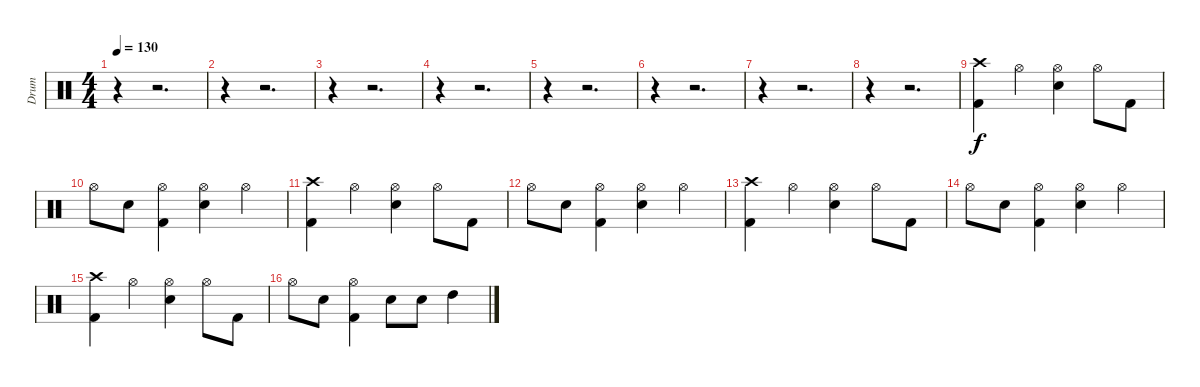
\track ("Drum" "Drum") {instrument percussion}
\staff {score}
\articulation defaults
\ts (4 4)
\tempo 130
\clef neutral
\ks c
r.4{dy f} r.2{d} |
r.4 r.2{d} |
r.4 r.2{d} |
r.4 r.2{d} |
r.4 r.2{d} |
r.4 r.2{d} |
r.4 r.2{d} |
r.4 r.2{d} |
("Crash high (hit)" "Kick (hit) 2").4 "Hi-Hat (open)".4 ("Snare (hit) 2" "Hi-Hat (open)").4 "Hi-Hat (open)".8 "Kick (hit) 2".8 |
"Hi-Hat (open)".8 "Snare (hit) 2".8 ("Kick (hit) 2" "Hi-Hat (open)").4 ("Snare (hit) 2" "Hi-Hat (open)").4 "Hi-Hat (open)".4 |
("Crash high (hit)" "Kick (hit) 2").4 "Hi-Hat (open)".4 ("Snare (hit) 2" "Hi-Hat (open)").4 "Hi-Hat (open)".8 "Kick (hit) 2".8 |
"Hi-Hat (open)".8 "Snare (hit) 2".8 ("Kick (hit) 2" "Hi-Hat (open)").4 ("Snare (hit) 2" "Hi-Hat (open)").4 "Hi-Hat (open)".4 |
("Crash high (hit)" "Kick (hit) 2").4 "Hi-Hat (open)".4 ("Snare (hit) 2" "Hi-Hat (open)").4 "Hi-Hat (open)".8 "Kick (hit) 2".8 |
"Hi-Hat (open)".8 "Snare (hit) 2".8 ("Kick (hit) 2" "Hi-Hat (open)").4 ("Snare (hit) 2" "Hi-Hat (open)").4 "Hi-Hat (open)".4 |
("Crash high (hit)" "Kick (hit) 2").4 "Hi-Hat (open)".4 ("Snare (hit) 2" "Hi-Hat (open)").4 "Hi-Hat (open)".8 "Kick (hit) 2".8 |
"Hi-Hat (open)".8 "Snare (hit) 2".8 ("Kick (hit) 2" "Hi-Hat (open)").4 "Snare (hit) 2".8 "Snare (hit) 2".8 "High Tom (hit)".4
